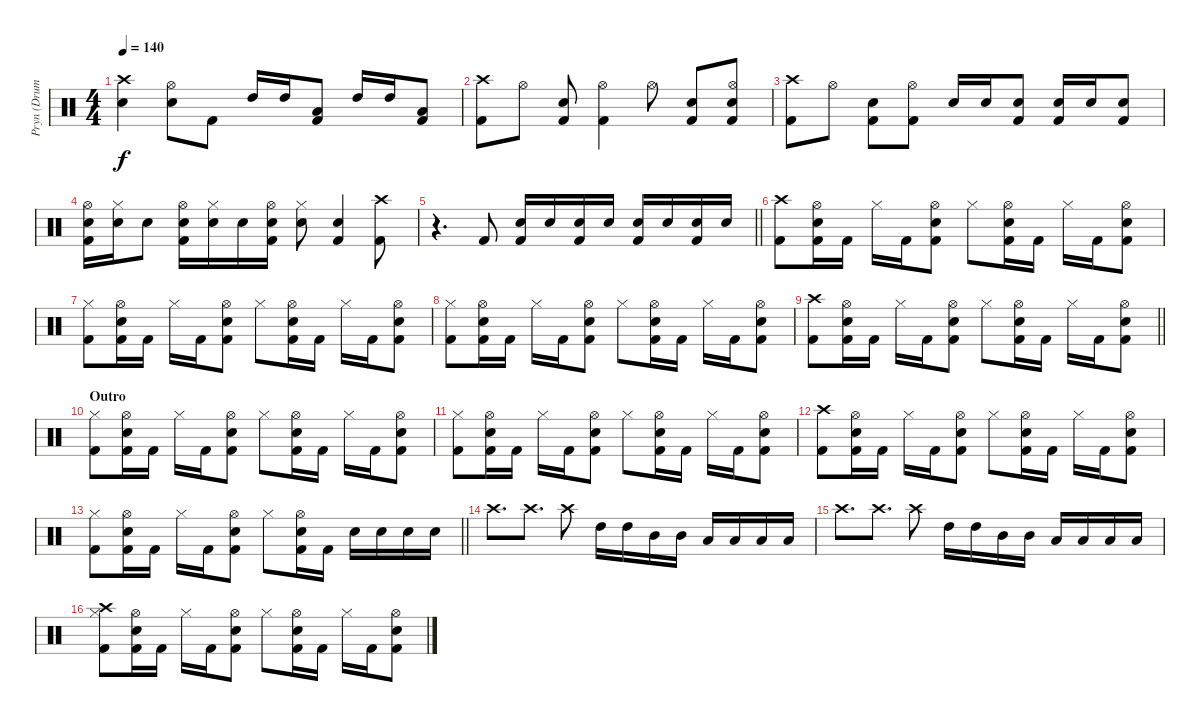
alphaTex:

\track ("Pryn (Drums)" "Pryn (Drum") {instrument percussion}
\staff {score}
\articulation defaults
\ts (4 4)
\tempo 140
\clef neutral
\ks c
("Crash high (hit)" "Snare (hit) 2").4{dy f} ("Hi-Hat (open)" "Snare (hit) 2").8 "Kick (hit) 2".8 "High Tom (hit)".16 "High Tom (hit)".16 ("Low Tom (hit)" "Kick (hit) 2").8 "High Tom (hit)".16 "High Tom (hit)".16 ("Low Tom (hit)" "Kick (hit) 2").8 |
("Crash high (hit)" "Kick (hit) 2").8 "Hi-Hat (open)".8 ("Snare (hit) 2" "Kick (hit) 2").8 ("Hi-Hat (open)" "Kick (hit) 2").4 "Hi-Hat (open)".8 ("Snare (hit) 2" "Kick (hit) 2").8 ("Hi-Hat (open)" "Snare (hit) 2" "Kick (hit) 2").8 |
("Crash high (hit)" "Kick (hit) 2").8 "Hi-Hat (open)".8 ("Snare (hit) 2" "Kick (hit) 2").8 ("Hi-Hat (open)" "Kick (hit) 2").8 "Snare (hit) 2".16 "Snare (hit) 2".16 ("Snare (hit) 2" "Kick (hit) 2").8 ("Snare (hit) 2" "Kick (hit) 2").16 "Snare (hit) 2".16 ("Snare (hit) 2" "Kick (hit) 2").8 |
("Snare (hit) 2" "Hi-Hat (open)" "Kick (hit) 2").16 ("Snare (hit) 2" "Hi-Hat (closed)").16 "Snare (hit) 2".8 ("Snare (hit) 2" "Hi-Hat (open)" "Kick (hit) 2").16 ("Snare (hit) 2" "Hi-Hat (closed)").16 "Snare (hit) 2".16 ("Snare (hit) 2" "Hi-Hat (open)" "Kick (hit) 2").16 ("Snare (hit) 2" "Hi-Hat (closed)").8 ("Snare (hit) 2" "Kick (hit) 2").4 ("Crash high (hit)" "Kick (hit) 2").8 |
\barLineRight lightlight
r.4{d} "Kick (hit) 2".8 ("Snare (hit) 2" "Kick (hit) 2").16 "Snare (hit) 2".16 ("Snare (hit) 2" "Kick (hit) 2").16 "Snare (hit) 2".16 ("Snare (hit) 2" "Kick (hit) 2").16 "Snare (hit) 2".16 ("Snare (hit) 2" "Kick (hit) 2").16 "Snare (hit) 2".16 |
("Crash high (hit)" "Kick (hit) 2").8 ("Snare (hit) 2" "Hi-Hat (open)" "Kick (hit) 2").16 "Kick (hit) 2".16 "Hi-Hat (closed)".16 "Kick (hit) 2".16 ("Snare (hit) 2" "Hi-Hat (open)" "Kick (hit) 2").8 "Hi-Hat (closed)".8 ("Snare (hit) 2" "Hi-Hat (open)" "Kick (hit) 2").16 "Kick (hit) 2".16 "Hi-Hat (closed)".16 "Kick (hit) 2".16 ("Snare (hit) 2" "Hi-Hat (open)" "Kick (hit) 2").8 |
("Kick (hit) 2" "Hi-Hat (closed)").8 ("Snare (hit) 2" "Hi-Hat (open)" "Kick (hit) 2").16 "Kick (hit) 2".16 "Hi-Hat (closed)".16 "Kick (hit) 2".16 ("Snare (hit) 2" "Hi-Hat (open)" "Kick (hit) 2").8 "Hi-Hat (closed)".8 ("Snare (hit) 2" "Hi-Hat (open)" "Kick (hit) 2").16 "Kick (hit) 2".16 "Hi-Hat (closed)".16 "Kick (hit) 2".16 ("Snare (hit) 2" "Hi-Hat (open)" "Kick (hit) 2").8 |
("Kick (hit) 2" "Hi-Hat (closed)").8 ("Snare (hit) 2" "Hi-Hat (open)" "Kick (hit) 2").16 "Kick (hit) 2".16 "Hi-Hat (closed)".16 "Kick (hit) 2".16 ("Snare (hit) 2" "Hi-Hat (open)" "Kick (hit) 2").8 "Hi-Hat (closed)".8 ("Snare (hit) 2" "Hi-Hat (open)" "Kick (hit) 2").16 "Kick (hit) 2".16 "Hi-Hat (closed)".16 "Kick (hit) 2".16 ("Snare (hit) 2" "Hi-Hat (open)" "Kick (hit) 2").8 |
\barLineRight lightlight
("Crash high (hit)" "Kick (hit) 2").8 ("Snare (hit) 2" "Hi-Hat (open)" "Kick (hit) 2").16 "Kick (hit) 2".16 "Hi-Hat (closed)".16 "Kick (hit) 2".16 ("Snare (hit) 2" "Hi-Hat (open)" "Kick (hit) 2").8 "Hi-Hat (closed)".8 ("Snare (hit) 2" "Hi-Hat (open)" "Kick (hit) 2").16 "Kick (hit) 2".16 "Hi-Hat (closed)".16 "Kick (hit) 2".16 ("Snare (hit) 2" "Hi-Hat (open)" "Kick (hit) 2").8 |
\section ("" "Outro")
("Kick (hit) 2" "Hi-Hat (closed)").8 ("Snare (hit) 2" "Hi-Hat (open)" "Kick (hit) 2").16 "Kick (hit) 2".16 "Hi-Hat (closed)".16 "Kick (hit) 2".16 ("Snare (hit) 2" "Hi-Hat (open)" "Kick (hit) 2").8 "Hi-Hat (closed)".8 ("Snare (hit) 2" "Hi-Hat (open)" "Kick (hit) 2").16 "Kick (hit) 2".16 "Hi-Hat (closed)".16 "Kick (hit) 2".16 ("Snare (hit) 2" "Hi-Hat (open)" "Kick (hit) 2").8 |
("Kick (hit) 2" "Hi-Hat (closed)").8 ("Snare (hit) 2" "Hi-Hat (open)" "Kick (hit) 2").16 "Kick (hit) 2".16 "Hi-Hat (closed)".16 "Kick (hit) 2".16 ("Snare (hit) 2" "Hi-Hat (open)" "Kick (hit) 2").8 "Hi-Hat (closed)".8 ("Snare (hit) 2" "Hi-Hat (open)" "Kick (hit) 2").16 "Kick (hit) 2".16 "Hi-Hat (closed)".16 "Kick (hit) 2".16 ("Snare (hit) 2" "Hi-Hat (open)" "Kick (hit) 2").8 |
("Crash high (hit)" "Kick (hit) 2").8 ("Snare (hit) 2" "Hi-Hat (open)" "Kick (hit) 2").16 "Kick (hit) 2".16 "Hi-Hat (closed)".16 "Kick (hit) 2".16 ("Snare (hit) 2" "Hi-Hat (open)" "Kick (hit) 2").8 "Hi-Hat (closed)".8 ("Snare (hit) 2" "Hi-Hat (open)" "Kick (hit) 2").16 "Kick (hit) 2".16 "Hi-Hat (closed)".16 "Kick (hit) 2".16 ("Snare (hit) 2" "Hi-Hat (open)" "Kick (hit) 2").8 |
\barLineRight lightlight
("Kick (hit) 2" "Hi-Hat (closed)").8 ("Snare (hit) 2" "Hi-Hat (open)" "Kick (hit) 2").16 "Kick (hit) 2".16 "Hi-Hat (closed)".16 "Kick (hit) 2".16 ("Snare (hit) 2" "Hi-Hat (open)" "Kick (hit) 2").8 "Hi-Hat (closed)".8 ("Snare (hit) 2" "Hi-Hat (open)" "Kick (hit) 2").16 "Kick (hit) 2".16 "Snare (hit) 2".16 "Snare (hit) 2".16 "Snare (hit) 2".16 "Snare (hit) 2".16 |
"Crash high (hit)".8{d} "Crash high (hit)".8{d} "Crash high (hit)".8 "High Tom (hit)".16 "High Tom (hit)".16 "Mid Tom (hit)".16 "Mid Tom (hit)".16 "Low Tom (hit)".16 "Low Tom (hit)".16 "Low Floor Tom (hit)".16 "Low Floor Tom (hit)".16 |
"Crash high (hit)".8{d} "Crash high (hit)".8{d} "Crash high (hit)".8 "High Tom (hit)".16 "High Tom (hit)".16 "Mid Tom (hit)".16 "Mid Tom (hit)".16 "Low Tom (hit)".16 "Low Tom (hit)".16 "Low Floor Tom (hit)".16 "Low Floor Tom (hit)".16 |
("Kick (hit) 2" "Hi-Hat (closed)" "Crash high (hit)").8 ("Snare (hit) 2" "Hi-Hat (open)" "Kick (hit) 2").16 "Kick (hit) 2".16 "Hi-Hat (closed)".16 "Kick (hit) 2".16 ("Snare (hit) 2" "Hi-Hat (open)" "Kick (hit) 2").8 "Hi-Hat (closed)".8 ("Snare (hit) 2" "Hi-Hat (open)" "Kick (hit) 2").16 "Kick (hit) 2".16 "Hi-Hat (closed)".16 "Kick (hit) 2".16 ("Snare (hit) 2" "Hi-Hat (open)" "Kick (hit) 2").8
